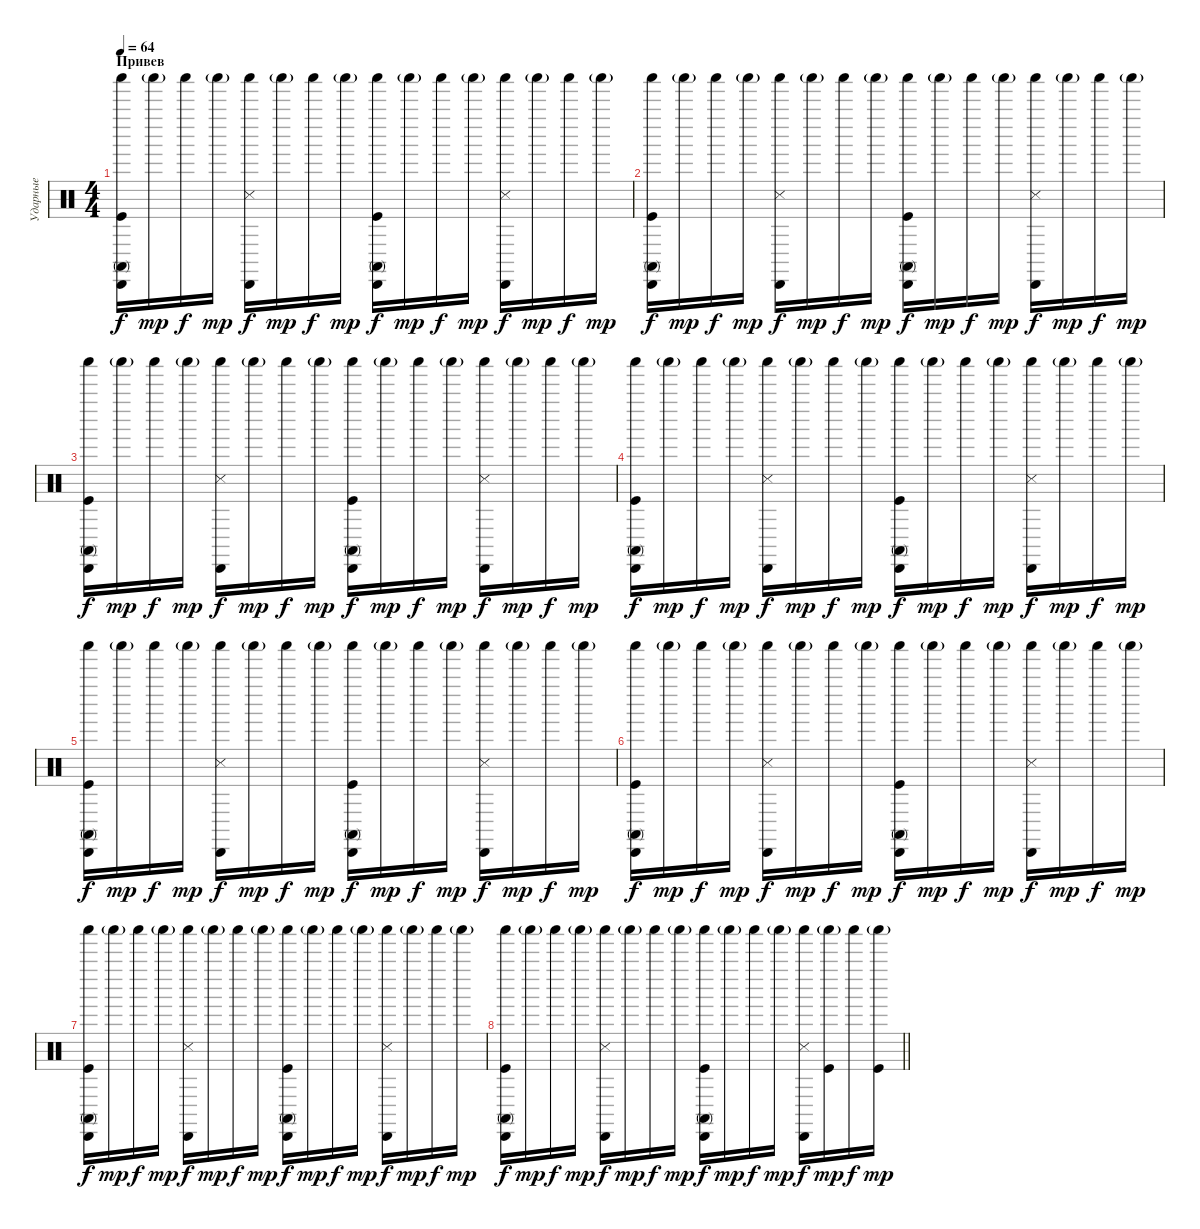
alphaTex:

\track ("Ударные" "Ударные") {instrument percussion}
\staff {score}
\articulation defaults
\ts (4 4)
\section ("" "Привев")
\tempo 64
\clef neutral
\ks c
("Kick (hit)" "Conga high (mute)" "Cabasa (hit)" "Shaker (hit)").16{dy f} "Shaker (hit)"{g}.16{dy mp} "Shaker (hit)".16{dy f} "Shaker (hit)"{g}.16{dy mp} ("Snare (side stick) 3" "Cabasa (hit)" "Shaker (hit)").16{dy f} "Shaker (hit)"{g}.16{dy mp} "Shaker (hit)".16{dy f} "Shaker (hit)"{g}.16{dy mp} ("Kick (hit)" "Conga high (mute)" "Cabasa (hit)" "Shaker (hit)").16{dy f} "Shaker (hit)"{g}.16{dy mp} "Shaker (hit)".16{dy f} "Shaker (hit)"{g}.16{dy mp} ("Snare (side stick) 3" "Cabasa (hit)" "Shaker (hit)").16{dy f} "Shaker (hit)"{g}.16{dy mp} "Shaker (hit)".16{dy f} "Shaker (hit)"{g}.16{dy mp} |
("Kick (hit)" "Conga high (mute)" "Cabasa (hit)" "Shaker (hit)").16{dy f} "Shaker (hit)"{g}.16{dy mp} "Shaker (hit)".16{dy f} "Shaker (hit)"{g}.16{dy mp} ("Snare (side stick) 3" "Cabasa (hit)" "Shaker (hit)").16{dy f} "Shaker (hit)"{g}.16{dy mp} "Shaker (hit)".16{dy f} "Shaker (hit)"{g}.16{dy mp} ("Kick (hit)" "Conga high (mute)" "Cabasa (hit)" "Shaker (hit)").16{dy f} "Shaker (hit)"{g}.16{dy mp} "Shaker (hit)".16{dy f} "Shaker (hit)"{g}.16{dy mp} ("Snare (side stick) 3" "Cabasa (hit)" "Shaker (hit)").16{dy f} "Shaker (hit)"{g}.16{dy mp} "Shaker (hit)".16{dy f} "Shaker (hit)"{g}.16{dy mp} |
("Kick (hit)" "Conga high (mute)" "Cabasa (hit)" "Shaker (hit)").16{dy f} "Shaker (hit)"{g}.16{dy mp} "Shaker (hit)".16{dy f} "Shaker (hit)"{g}.16{dy mp} ("Snare (side stick) 3" "Cabasa (hit)" "Shaker (hit)").16{dy f} "Shaker (hit)"{g}.16{dy mp} "Shaker (hit)".16{dy f} "Shaker (hit)"{g}.16{dy mp} ("Kick (hit)" "Conga high (mute)" "Cabasa (hit)" "Shaker (hit)").16{dy f} "Shaker (hit)"{g}.16{dy mp} "Shaker (hit)".16{dy f} "Shaker (hit)"{g}.16{dy mp} ("Snare (side stick) 3" "Cabasa (hit)" "Shaker (hit)").16{dy f} "Shaker (hit)"{g}.16{dy mp} "Shaker (hit)".16{dy f} "Shaker (hit)"{g}.16{dy mp} |
("Kick (hit)" "Conga high (mute)" "Cabasa (hit)" "Shaker (hit)").16{dy f} "Shaker (hit)"{g}.16{dy mp} "Shaker (hit)".16{dy f} "Shaker (hit)"{g}.16{dy mp} ("Snare (side stick) 3" "Cabasa (hit)" "Shaker (hit)").16{dy f} "Shaker (hit)"{g}.16{dy mp} "Shaker (hit)".16{dy f} "Shaker (hit)"{g}.16{dy mp} ("Kick (hit)" "Conga high (mute)" "Cabasa (hit)" "Shaker (hit)").16{dy f} "Shaker (hit)"{g}.16{dy mp} "Shaker (hit)".16{dy f} "Shaker (hit)"{g}.16{dy mp} ("Snare (side stick) 3" "Cabasa (hit)" "Shaker (hit)").16{dy f} "Shaker (hit)"{g}.16{dy mp} "Shaker (hit)".16{dy f} "Shaker (hit)"{g}.16{dy mp} |
("Kick (hit)" "Conga high (mute)" "Cabasa (hit)" "Shaker (hit)").16{dy f} "Shaker (hit)"{g}.16{dy mp} "Shaker (hit)".16{dy f} "Shaker (hit)"{g}.16{dy mp} ("Snare (side stick) 3" "Cabasa (hit)" "Shaker (hit)").16{dy f} "Shaker (hit)"{g}.16{dy mp} "Shaker (hit)".16{dy f} "Shaker (hit)"{g}.16{dy mp} ("Kick (hit)" "Conga high (mute)" "Cabasa (hit)" "Shaker (hit)").16{dy f} "Shaker (hit)"{g}.16{dy mp} "Shaker (hit)".16{dy f} "Shaker (hit)"{g}.16{dy mp} ("Snare (side stick) 3" "Cabasa (hit)" "Shaker (hit)").16{dy f} "Shaker (hit)"{g}.16{dy mp} "Shaker (hit)".16{dy f} "Shaker (hit)"{g}.16{dy mp} |
("Kick (hit)" "Conga high (mute)" "Cabasa (hit)" "Shaker (hit)").16{dy f} "Shaker (hit)"{g}.16{dy mp} "Shaker (hit)".16{dy f} "Shaker (hit)"{g}.16{dy mp} ("Snare (side stick) 3" "Cabasa (hit)" "Shaker (hit)").16{dy f} "Shaker (hit)"{g}.16{dy mp} "Shaker (hit)".16{dy f} "Shaker (hit)"{g}.16{dy mp} ("Kick (hit)" "Conga high (mute)" "Cabasa (hit)" "Shaker (hit)").16{dy f} "Shaker (hit)"{g}.16{dy mp} "Shaker (hit)".16{dy f} "Shaker (hit)"{g}.16{dy mp} ("Snare (side stick) 3" "Cabasa (hit)" "Shaker (hit)").16{dy f} "Shaker (hit)"{g}.16{dy mp} "Shaker (hit)".16{dy f} "Shaker (hit)"{g}.16{dy mp} |
("Kick (hit)" "Conga high (mute)" "Cabasa (hit)" "Shaker (hit)").16{dy f} "Shaker (hit)"{g}.16{dy mp} "Shaker (hit)".16{dy f} "Shaker (hit)"{g}.16{dy mp} ("Snare (side stick) 3" "Cabasa (hit)" "Shaker (hit)").16{dy f} "Shaker (hit)"{g}.16{dy mp} "Shaker (hit)".16{dy f} "Shaker (hit)"{g}.16{dy mp} ("Kick (hit)" "Conga high (mute)" "Cabasa (hit)" "Shaker (hit)").16{dy f} "Shaker (hit)"{g}.16{dy mp} "Shaker (hit)".16{dy f} "Shaker (hit)"{g}.16{dy mp} ("Snare (side stick) 3" "Cabasa (hit)" "Shaker (hit)").16{dy f} "Shaker (hit)"{g}.16{dy mp} "Shaker (hit)".16{dy f} "Shaker (hit)"{g}.16{dy mp} |
\barLineRight lightlight
("Kick (hit)" "Conga high (mute)" "Cabasa (hit)" "Shaker (hit)").16{dy f} "Shaker (hit)"{g}.16{dy mp} "Shaker (hit)".16{dy f} "Shaker (hit)"{g}.16{dy mp} ("Snare (side stick) 3" "Cabasa (hit)" "Shaker (hit)").16{dy f} "Shaker (hit)"{g}.16{dy mp} "Shaker (hit)".16{dy f} "Shaker (hit)"{g}.16{dy mp} ("Kick (hit)" "Conga high (mute)" "Cabasa (hit)" "Shaker (hit)").16{dy f} "Shaker (hit)"{g}.16{dy mp} "Shaker (hit)".16{dy f} "Shaker (hit)"{g}.16{dy mp} ("Snare (side stick) 3" "Cabasa (hit)" "Shaker (hit)").16{dy f} ("Kick (hit)" "Shaker (hit)"{g}).16{dy mp} "Shaker (hit)".16{dy f} ("Kick (hit)" "Shaker (hit)"{g}).16{dy mp}
